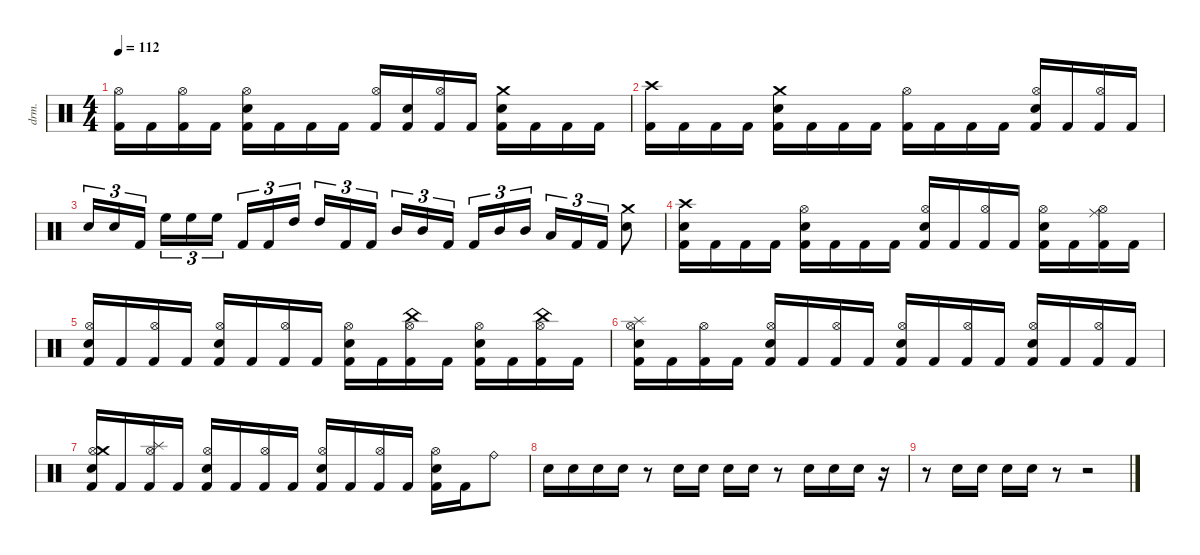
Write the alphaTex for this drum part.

\defaultSystemsLayout 4
\hideDynamics
\bracketExtendMode nobrackets
\otherSystemsTrackNameOrientation horizontal
\track ("Mike Portnoy" "drm.") {instrument percussion}
\staff {score}
\articulation defaults
\ts (4 4)
\tempo 112
\clef neutral
\ks c
("Kick (hit) 2" "Hi-Hat (open)").16{dy f beam Down} "Kick (hit) 2".16{beam Down} ("Kick (hit) 2" "Hi-Hat (open)").16{beam Down} "Kick (hit) 2".16{beam Down} ("Kick (hit) 2" "Snare (hit) 2" "Hi-Hat (open)").16{beam Down} "Kick (hit) 2".16{beam Down} "Kick (hit) 2".16{beam Down} "Kick (hit) 2".16{beam Down} ("Kick (hit) 2" "Hi-Hat (open)").16{beam Up} ("Kick (hit) 2" "Snare (hit) 2").16{beam Up} ("Kick (hit) 2" "Hi-Hat (open)").16{beam Up} "Kick (hit) 2".16{beam Up} ("Kick (hit) 2" "Snare (hit) 2" "Crash medium (hit)").16{beam Down} "Kick (hit) 2".16{beam Down} "Kick (hit) 2".16{beam Down} "Kick (hit) 2".16{beam Down} |
("Kick (hit) 2" "Crash high (hit)").16{beam Down} "Kick (hit) 2".16{beam Down} "Kick (hit) 2".16{beam Down} "Kick (hit) 2".16{beam Down} ("Kick (hit) 2" "Snare (hit) 2" "Crash medium (hit)").16{beam Down} "Kick (hit) 2".16{beam Down} "Kick (hit) 2".16{beam Down} "Kick (hit) 2".16{beam Down} ("Kick (hit) 2" "Hi-Hat (open)").16{beam Down} "Kick (hit) 2".16{beam Down} "Kick (hit) 2".16{beam Down} "Kick (hit) 2".16{beam Down} ("Kick (hit) 2" "Snare (hit) 2" "Hi-Hat (open)").16{beam Up} "Kick (hit) 2".16{beam Up} ("Kick (hit) 2" "Hi-Hat (open)").16{beam Up} "Kick (hit) 2".16{beam Up} |
"Snare (hit) 2".16{tu (3 2) beam Up} "Snare (hit) 2".16{tu (3 2) beam Up} "Kick (hit) 2".16{tu (3 2) beam Up} "High Floor Tom (hit)".16{tu (3 2) beam Down} "High Floor Tom (hit)".16{tu (3 2) beam Down} "High Floor Tom (hit)".16{tu (3 2) beam Down} "Kick (hit) 2".16{tu (3 2) beam Up} "Kick (hit) 2".16{tu (3 2) beam Up} "High Tom (hit)".16{tu (3 2) beam Up} "High Tom (hit)".16{tu (3 2) beam Up} "Kick (hit) 2".16{tu (3 2) beam Up} "Kick (hit) 2".16{tu (3 2) beam Up} "Mid Tom (hit)".16{tu (3 2) beam Up} "Mid Tom (hit)".16{tu (3 2) beam Up} "Kick (hit) 2".16{tu (3 2) beam Up} "Kick (hit) 2".16{tu (3 2) beam Up} "Mid Tom (hit)".16{tu (3 2) beam Up} "Mid Tom (hit)".16{tu (3 2) beam Up} "Low Tom (hit)".16{tu (3 2) beam Up} "Kick (hit) 2".16{tu (3 2) beam Up} "Kick (hit) 2".16{tu (3 2) beam Up} ("Snare (hit) 2" "Crash medium (hit)").8{beam Down} |
("Kick (hit) 2" "Snare (hit) 2" "Crash high (hit)").16{beam Down} "Kick (hit) 2".16{beam Down} "Kick (hit) 2".16{beam Down} "Kick (hit) 2".16{beam Down} ("Kick (hit) 2" "Snare (hit) 2" "Hi-Hat (open)").16{beam Down} "Kick (hit) 2".16{beam Down} "Kick (hit) 2".16{beam Down} "Kick (hit) 2".16{beam Down} ("Kick (hit) 2" "Snare (hit) 2" "Hi-Hat (open)").16{beam Up} "Kick (hit) 2".16{beam Up} ("Kick (hit) 2" "Hi-Hat (open)").16{beam Up} "Kick (hit) 2".16{beam Up} ("Kick (hit) 2" "Snare (hit) 2" "Hi-Hat (open)").16{beam Down} "Kick (hit) 2".16{beam Down} ("Kick (hit) 2" "Hi-Hat (open)" "Ride (middle)").16{beam Down} "Kick (hit) 2".16{beam Down} |
("Kick (hit) 2" "Snare (hit) 2" "Hi-Hat (open)").16{beam Up} "Kick (hit) 2".16{beam Up} ("Kick (hit) 2" "Hi-Hat (open)").16{beam Up} "Kick (hit) 2".16{beam Up} ("Kick (hit) 2" "Snare (hit) 2" "Hi-Hat (open)").16{beam Up} "Kick (hit) 2".16{beam Up} ("Kick (hit) 2" "Hi-Hat (open)").16{beam Up} "Kick (hit) 2".16{beam Up} ("Kick (hit) 2" "Snare (hit) 2" "Hi-Hat (open)").16{beam Down} "Kick (hit) 2".16{beam Down} ("Kick (hit) 2" "Hi-Hat (open)" "China (hit)").16{beam Down} "Kick (hit) 2".16{beam Down} ("Kick (hit) 2" "Snare (hit) 2" "Hi-Hat (open)").16{beam Down} "Kick (hit) 2".16{beam Down} ("Kick (hit) 2" "Hi-Hat (open)" "China (hit)").16{beam Down} "Kick (hit) 2".16{beam Down} |
("Kick (hit) 2" "Snare (hit) 2" "Hi-Hat (open)" "Splash (hit)").16{beam Down} "Kick (hit) 2".16{beam Down} ("Kick (hit) 2" "Hi-Hat (open)").16{beam Down} "Kick (hit) 2".16{beam Down} ("Kick (hit) 2" "Snare (hit) 2" "Hi-Hat (open)").16{beam Up} "Kick (hit) 2".16{beam Up} ("Kick (hit) 2" "Hi-Hat (open)").16{beam Up} "Kick (hit) 2".16{beam Up} ("Kick (hit) 2" "Snare (hit) 2" "Hi-Hat (open)").16{beam Up} "Kick (hit) 2".16{beam Up} ("Kick (hit) 2" "Hi-Hat (open)").16{beam Up} "Kick (hit) 2".16{beam Up} ("Kick (hit) 2" "Snare (hit) 2" "Hi-Hat (open)").16{beam Up} "Kick (hit) 2".16{beam Up} ("Kick (hit) 2" "Hi-Hat (open)").16{beam Up} "Kick (hit) 2".16{beam Up} |
("Kick (hit) 2" "Snare (hit) 2" "Hi-Hat (open)" "Crash medium (hit)").16{beam Up} "Kick (hit) 2".16{beam Up} ("Kick (hit) 2" "Hi-Hat (open)" "Splash (hit)").16{beam Up} "Kick (hit) 2".16{beam Up} ("Kick (hit) 2" "Snare (hit) 2" "Hi-Hat (open)").16{beam Up} "Kick (hit) 2".16{beam Up} ("Kick (hit) 2" "Hi-Hat (open)").16{beam Up} "Kick (hit) 2".16{beam Up} ("Kick (hit) 2" "Snare (hit) 2" "Hi-Hat (open)").16{beam Up} "Kick (hit) 2".16{beam Up} ("Kick (hit) 2" "Hi-Hat (open)").16{beam Up} "Kick (hit) 2".16{beam Up} ("Kick (hit) 2" "Snare (hit) 2" "Hi-Hat (open)").16{beam Down} "Kick (hit) 2".16{beam Down} "Ride (bell)".8{beam Down} |
"Snare (hit) 2".16{beam Down} "Snare (hit) 2".16{beam Down} "Snare (hit) 2".16{beam Down} "Snare (hit) 2".16{beam Down} r.8{beam Down} "Snare (hit) 2".16{beam Down} "Snare (hit) 2".16{beam Down} "Snare (hit) 2".16{beam Down} "Snare (hit) 2".16{beam Down} r.8{beam Down} "Snare (hit) 2".16{beam Down} "Snare (hit) 2".16{beam Down} "Snare (hit) 2".16{beam Down} r.16{beam Down} |
r.8{beam Down} "Snare (hit) 2".16{beam Down} "Snare (hit) 2".16{beam Down} "Snare (hit) 2".16{beam Down} "Snare (hit) 2".16{beam Down} r.8{beam Down} r.2{beam Down}
